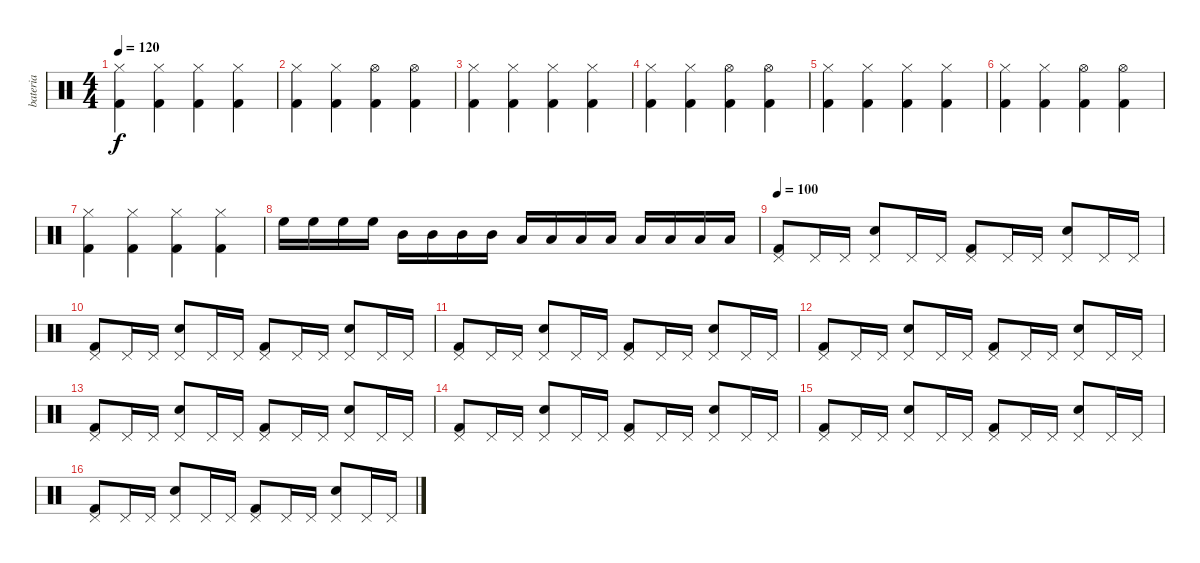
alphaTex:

\track ("bateria" "bateria") {instrument percussion}
\staff {score}
\articulation defaults
\ts (4 4)
\section ("" "")
\tempo 120
\tempo 100
\tempo 120
\clef neutral
\ks c
("Hi-Hat (closed)" "Kick (hit) 2").4{dy f} ("Hi-Hat (closed)" "Kick (hit) 2").4 ("Hi-Hat (closed)" "Kick (hit) 2").4 ("Hi-Hat (closed)" "Kick (hit) 2").4 |
\section ("" "")
("Hi-Hat (closed)" "Kick (hit) 2").4 ("Hi-Hat (closed)" "Kick (hit) 2").4 ("Hi-Hat (open)" "Kick (hit) 2").4 ("Hi-Hat (open)" "Kick (hit) 2").4 |
\section ("" "")
("Hi-Hat (closed)" "Kick (hit) 2").4 ("Hi-Hat (closed)" "Kick (hit) 2").4 ("Hi-Hat (closed)" "Kick (hit) 2").4 ("Hi-Hat (closed)" "Kick (hit) 2").4 |
("Hi-Hat (closed)" "Kick (hit) 2").4 ("Hi-Hat (closed)" "Kick (hit) 2").4 ("Hi-Hat (open)" "Kick (hit) 2").4 ("Hi-Hat (open)" "Kick (hit) 2").4 |
("Hi-Hat (closed)" "Kick (hit) 2").4 ("Hi-Hat (closed)" "Kick (hit) 2").4 ("Hi-Hat (closed)" "Kick (hit) 2").4 ("Hi-Hat (closed)" "Kick (hit) 2").4 |
("Hi-Hat (closed)" "Kick (hit) 2").4 ("Hi-Hat (closed)" "Kick (hit) 2").4 ("Hi-Hat (open)" "Kick (hit) 2").4 ("Hi-Hat (open)" "Kick (hit) 2").4 |
("Hi-Hat (closed)" "Kick (hit) 2").4 ("Hi-Hat (closed)" "Kick (hit) 2").4 ("Hi-Hat (closed)" "Kick (hit) 2").4 ("Hi-Hat (closed)" "Kick (hit) 2").4 |
\section ("" "")
"High Floor Tom (hit)".16{volume 16 balance 16} "High Floor Tom (hit)".16 "High Floor Tom (hit)".16 "High Floor Tom (hit)".16 "Mid Tom (hit)".16 "Mid Tom (hit)".16 "Mid Tom (hit)".16 "Mid Tom (hit)".16 "Low Tom (hit)".16 "Low Tom (hit)".16 "Low Tom (hit)".16 "Low Tom (hit)".16 "Low Floor Tom (hit)".16 "Low Floor Tom (hit)".16 "Low Floor Tom (hit)".16 "Low Floor Tom (hit)".16 |
\section ("" "")
\tempo 100
("Pedal Hi-Hat (hit)" "Kick (hit) 2").8{volume 8 balance 7} "Pedal Hi-Hat (hit)".16 "Pedal Hi-Hat (hit)".16 ("Pedal Hi-Hat (hit)" "Snare (hit) 2").8 "Pedal Hi-Hat (hit)".16 "Pedal Hi-Hat (hit)".16 ("Pedal Hi-Hat (hit)" "Kick (hit) 2").8 "Pedal Hi-Hat (hit)".16 "Pedal Hi-Hat (hit)".16 ("Pedal Hi-Hat (hit)" "Snare (hit) 2").8 "Pedal Hi-Hat (hit)".16 "Pedal Hi-Hat (hit)".16 |
\section ("" "")
("Pedal Hi-Hat (hit)" "Kick (hit) 2").8 "Pedal Hi-Hat (hit)".16 "Pedal Hi-Hat (hit)".16 ("Pedal Hi-Hat (hit)" "Snare (hit) 2").8 "Pedal Hi-Hat (hit)".16 "Pedal Hi-Hat (hit)".16 ("Pedal Hi-Hat (hit)" "Kick (hit) 2").8 "Pedal Hi-Hat (hit)".16 "Pedal Hi-Hat (hit)".16 ("Pedal Hi-Hat (hit)" "Snare (hit) 2").8 "Pedal Hi-Hat (hit)".16 "Pedal Hi-Hat (hit)".16 |
("Pedal Hi-Hat (hit)" "Kick (hit) 2").8 "Pedal Hi-Hat (hit)".16 "Pedal Hi-Hat (hit)".16 ("Pedal Hi-Hat (hit)" "Snare (hit) 2").8 "Pedal Hi-Hat (hit)".16 "Pedal Hi-Hat (hit)".16 ("Pedal Hi-Hat (hit)" "Kick (hit) 2").8 "Pedal Hi-Hat (hit)".16 "Pedal Hi-Hat (hit)".16 ("Pedal Hi-Hat (hit)" "Snare (hit) 2").8 "Pedal Hi-Hat (hit)".16 "Pedal Hi-Hat (hit)".16 |
("Pedal Hi-Hat (hit)" "Kick (hit) 2").8 "Pedal Hi-Hat (hit)".16 "Pedal Hi-Hat (hit)".16 ("Pedal Hi-Hat (hit)" "Snare (hit) 2").8 "Pedal Hi-Hat (hit)".16 "Pedal Hi-Hat (hit)".16 ("Pedal Hi-Hat (hit)" "Kick (hit) 2").8 "Pedal Hi-Hat (hit)".16 "Pedal Hi-Hat (hit)".16 ("Pedal Hi-Hat (hit)" "Snare (hit) 2").8 "Pedal Hi-Hat (hit)".16 "Pedal Hi-Hat (hit)".16 |
("Pedal Hi-Hat (hit)" "Kick (hit) 2").8 "Pedal Hi-Hat (hit)".16 "Pedal Hi-Hat (hit)".16 ("Pedal Hi-Hat (hit)" "Snare (hit) 2").8 "Pedal Hi-Hat (hit)".16 "Pedal Hi-Hat (hit)".16 ("Pedal Hi-Hat (hit)" "Kick (hit) 2").8 "Pedal Hi-Hat (hit)".16 "Pedal Hi-Hat (hit)".16 ("Pedal Hi-Hat (hit)" "Snare (hit) 2").8 "Pedal Hi-Hat (hit)".16 "Pedal Hi-Hat (hit)".16 |
("Pedal Hi-Hat (hit)" "Kick (hit) 2").8 "Pedal Hi-Hat (hit)".16 "Pedal Hi-Hat (hit)".16 ("Pedal Hi-Hat (hit)" "Snare (hit) 2").8 "Pedal Hi-Hat (hit)".16 "Pedal Hi-Hat (hit)".16 ("Pedal Hi-Hat (hit)" "Kick (hit) 2").8 "Pedal Hi-Hat (hit)".16 "Pedal Hi-Hat (hit)".16 ("Pedal Hi-Hat (hit)" "Snare (hit) 2").8 "Pedal Hi-Hat (hit)".16 "Pedal Hi-Hat (hit)".16 |
("Pedal Hi-Hat (hit)" "Kick (hit) 2").8 "Pedal Hi-Hat (hit)".16 "Pedal Hi-Hat (hit)".16 ("Pedal Hi-Hat (hit)" "Snare (hit) 2").8 "Pedal Hi-Hat (hit)".16 "Pedal Hi-Hat (hit)".16 ("Pedal Hi-Hat (hit)" "Kick (hit) 2").8 "Pedal Hi-Hat (hit)".16 "Pedal Hi-Hat (hit)".16 ("Pedal Hi-Hat (hit)" "Snare (hit) 2").8 "Pedal Hi-Hat (hit)".16 "Pedal Hi-Hat (hit)".16 |
("Pedal Hi-Hat (hit)" "Kick (hit) 2").8 "Pedal Hi-Hat (hit)".16 "Pedal Hi-Hat (hit)".16 ("Pedal Hi-Hat (hit)" "Snare (hit) 2").8 "Pedal Hi-Hat (hit)".16 "Pedal Hi-Hat (hit)".16 ("Pedal Hi-Hat (hit)" "Kick (hit) 2").8 "Pedal Hi-Hat (hit)".16 "Pedal Hi-Hat (hit)".16 ("Pedal Hi-Hat (hit)" "Snare (hit) 2").8 "Pedal Hi-Hat (hit)".16 "Pedal Hi-Hat (hit)".16
